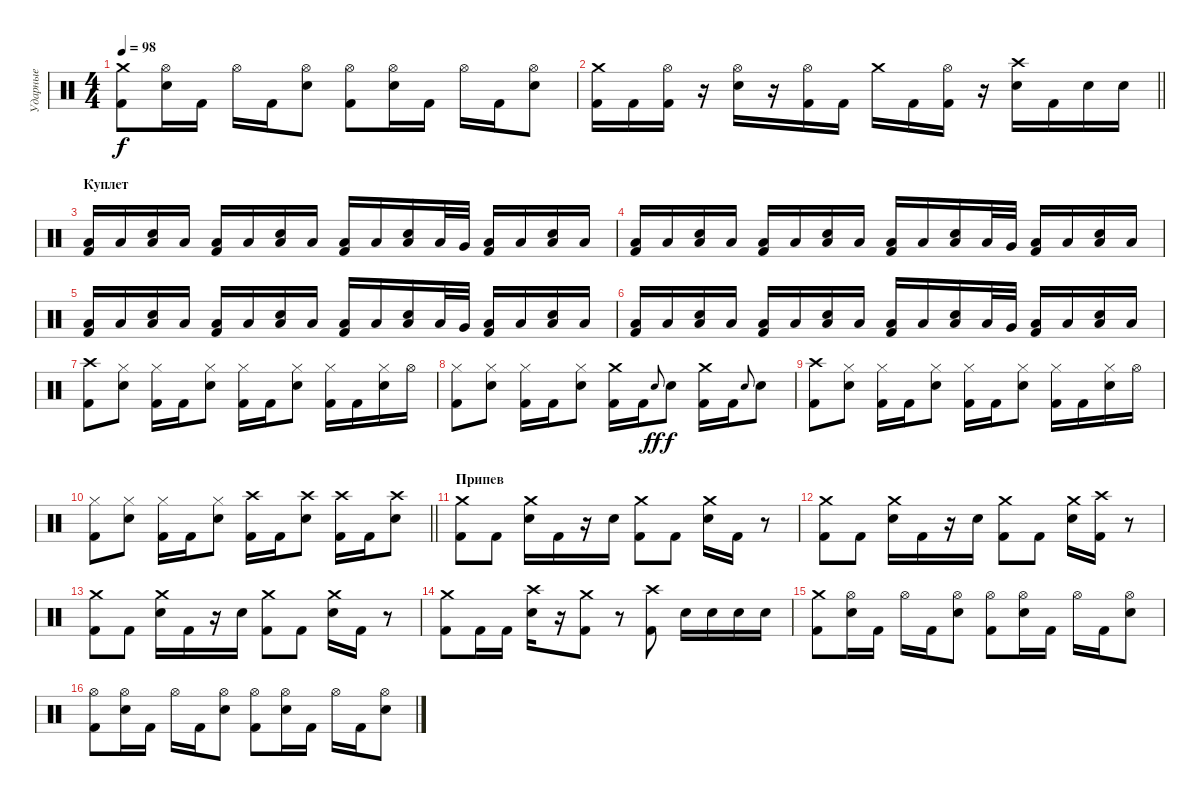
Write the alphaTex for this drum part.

\track ("Ударные" "Ударные") {instrument percussion}
\staff {score}
\articulation defaults
\ts (4 4)
\tempo 98
\clef neutral
\ks c
("Crash medium (hit)" "Kick (hit) 2").8{dy f} ("Hi-Hat (open)" "Electric Snare (hit)").16 "Kick (hit) 2".16 "Hi-Hat (open)".16 "Kick (hit) 2".16 ("Hi-Hat (open)" "Electric Snare (hit)").8 ("Hi-Hat (open)" "Kick (hit) 2").8 ("Hi-Hat (open)" "Electric Snare (hit)").16 "Kick (hit) 2".16 "Hi-Hat (open)".16 "Kick (hit) 2".16 ("Hi-Hat (open)" "Electric Snare (hit)").8 |
\barLineRight lightlight
("Crash medium (hit)" "Kick (hit) 2").16 "Kick (hit) 2".16 ("Hi-Hat (open)" "Kick (hit) 2").16 r.16 ("Hi-Hat (open)" "Electric Snare (hit)").16 r.16 ("Hi-Hat (open)" "Kick (hit) 2").16 "Kick (hit) 2".16 "Crash medium (hit)".16 "Kick (hit) 2".16 ("Hi-Hat (open)" "Kick (hit) 2").16 r.16 ("Crash high (hit)" "Electric Snare (hit)").16 "Kick (hit) 2".16 "Electric Snare (hit)".16 "Electric Snare (hit)".16 |
\section ("" "Куплет")
("Low Floor Tom (hit)" "Kick (hit) 2").16 "Low Floor Tom (hit)".16 ("Low Floor Tom (hit)" "Electric Snare (hit)").16 "Low Floor Tom (hit)".16 ("Low Floor Tom (hit)" "Kick (hit) 2").16 "Low Floor Tom (hit)".16 ("Low Floor Tom (hit)" "Electric Snare (hit)").16 "Low Floor Tom (hit)".16 ("Low Floor Tom (hit)" "Kick (hit) 2").16 "Low Floor Tom (hit)".16 ("Low Floor Tom (hit)" "Electric Snare (hit)").16 "Low Floor Tom (hit)".32 "Very Low Tom (hit)".32 ("Low Floor Tom (hit)" "Kick (hit) 2").16 "Low Floor Tom (hit)".16 ("Low Floor Tom (hit)" "Electric Snare (hit)").16 "Low Floor Tom (hit)".16 |
("Low Floor Tom (hit)" "Kick (hit) 2").16 "Low Floor Tom (hit)".16 ("Low Floor Tom (hit)" "Electric Snare (hit)").16 "Low Floor Tom (hit)".16 ("Low Floor Tom (hit)" "Kick (hit) 2").16 "Low Floor Tom (hit)".16 ("Low Floor Tom (hit)" "Electric Snare (hit)").16 "Low Floor Tom (hit)".16 ("Low Floor Tom (hit)" "Kick (hit) 2").16 "Low Floor Tom (hit)".16 ("Low Floor Tom (hit)" "Electric Snare (hit)").16 "Low Floor Tom (hit)".32 "Very Low Tom (hit)".32 ("Low Floor Tom (hit)" "Kick (hit) 2").16 "Low Floor Tom (hit)".16 ("Low Floor Tom (hit)" "Electric Snare (hit)").16 "Low Floor Tom (hit)".16 |
("Low Floor Tom (hit)" "Kick (hit) 2").16 "Low Floor Tom (hit)".16 ("Low Floor Tom (hit)" "Electric Snare (hit)").16 "Low Floor Tom (hit)".16 ("Low Floor Tom (hit)" "Kick (hit) 2").16 "Low Floor Tom (hit)".16 ("Low Floor Tom (hit)" "Electric Snare (hit)").16 "Low Floor Tom (hit)".16 ("Low Floor Tom (hit)" "Kick (hit) 2").16 "Low Floor Tom (hit)".16 ("Low Floor Tom (hit)" "Electric Snare (hit)").16 "Low Floor Tom (hit)".32 "Very Low Tom (hit)".32 ("Low Floor Tom (hit)" "Kick (hit) 2").16 "Low Floor Tom (hit)".16 ("Low Floor Tom (hit)" "Electric Snare (hit)").16 "Low Floor Tom (hit)".16 |
("Low Floor Tom (hit)" "Kick (hit) 2").16 "Low Floor Tom (hit)".16 ("Low Floor Tom (hit)" "Electric Snare (hit)").16 "Low Floor Tom (hit)".16 ("Low Floor Tom (hit)" "Kick (hit) 2").16 "Low Floor Tom (hit)".16 ("Low Floor Tom (hit)" "Electric Snare (hit)").16 "Low Floor Tom (hit)".16 ("Low Floor Tom (hit)" "Kick (hit) 2").16 "Low Floor Tom (hit)".16 ("Low Floor Tom (hit)" "Electric Snare (hit)").16 "Low Floor Tom (hit)".32 "Very Low Tom (hit)".32 ("Low Floor Tom (hit)" "Kick (hit) 2").16 "Low Floor Tom (hit)".16 ("Low Floor Tom (hit)" "Electric Snare (hit)").16 "Low Floor Tom (hit)".16 |
("Crash high (hit)" "Kick (hit) 2").8 ("Hi-Hat (closed)" "Electric Snare (hit)").8 ("Hi-Hat (closed)" "Kick (hit) 2").16 "Kick (hit) 2".16 ("Hi-Hat (closed)" "Electric Snare (hit)").8 ("Hi-Hat (closed)" "Kick (hit) 2").16 "Kick (hit) 2".16 ("Hi-Hat (closed)" "Electric Snare (hit)").8 ("Hi-Hat (closed)" "Kick (hit) 2").16 "Kick (hit) 2".16 ("Hi-Hat (closed)" "Electric Snare (hit)").16 "Hi-Hat (open)".16 |
("Hi-Hat (closed)" "Kick (hit) 2").8 ("Hi-Hat (closed)" "Electric Snare (hit)").8 ("Hi-Hat (closed)" "Kick (hit) 2").16 "Kick (hit) 2".16 ("Hi-Hat (closed)" "Electric Snare (hit)").8 ("Crash medium (hit)" "Kick (hit) 2").16 "Kick (hit) 2".16 "Electric Snare (hit)".8{gr onbeat dy ff} "Electric Snare (hit)".8{dy f} ("Crash medium (hit)" "Kick (hit) 2").16 "Kick (hit) 2".16 "Electric Snare (hit)".8{gr onbeat} "Electric Snare (hit)".8 |
("Crash high (hit)" "Kick (hit) 2").8 ("Hi-Hat (closed)" "Electric Snare (hit)").8 ("Hi-Hat (closed)" "Kick (hit) 2").16 "Kick (hit) 2".16 ("Hi-Hat (closed)" "Electric Snare (hit)").8 ("Hi-Hat (closed)" "Kick (hit) 2").16 "Kick (hit) 2".16 ("Hi-Hat (closed)" "Electric Snare (hit)").8 ("Hi-Hat (closed)" "Kick (hit) 2").16 "Kick (hit) 2".16 ("Hi-Hat (closed)" "Electric Snare (hit)").16 "Hi-Hat (open)".16 |
\barLineRight lightlight
("Hi-Hat (closed)" "Kick (hit) 2").8 ("Hi-Hat (closed)" "Electric Snare (hit)").8 ("Hi-Hat (closed)" "Kick (hit) 2").16 "Kick (hit) 2".16 ("Hi-Hat (closed)" "Electric Snare (hit)").8 ("Crash high (hit)" "Kick (hit) 2").16 "Kick (hit) 2".16 ("Crash high (hit)" "Electric Snare (hit)").8 ("Crash high (hit)" "Kick (hit) 2").16 "Kick (hit) 2".16 ("Crash high (hit)" "Electric Snare (hit)").8 |
\section ("" "Припев")
("Crash medium (hit)" "Kick (hit) 2").8 "Kick (hit) 2".8 ("Crash medium (hit)" "Electric Snare (hit)").16 "Kick (hit) 2".16 r.16 "Electric Snare (hit)".16 ("Crash medium (hit)" "Kick (hit) 2").8 "Kick (hit) 2".8 ("Crash medium (hit)" "Electric Snare (hit)").16 "Kick (hit) 2".16 r.8 |
("Crash medium (hit)" "Kick (hit) 2").8 "Kick (hit) 2".8 ("Crash medium (hit)" "Electric Snare (hit)").16 "Kick (hit) 2".16 r.16 "Electric Snare (hit)".16 ("Crash medium (hit)" "Kick (hit) 2").8 "Kick (hit) 2".8 ("Crash medium (hit)" "Electric Snare (hit)").16 ("Crash high (hit)" "Kick (hit) 2").16 r.8 |
("Crash medium (hit)" "Kick (hit) 2").8 "Kick (hit) 2".8 ("Crash medium (hit)" "Electric Snare (hit)").16 "Kick (hit) 2".16 r.16 "Electric Snare (hit)".16 ("Crash medium (hit)" "Kick (hit) 2").8 "Kick (hit) 2".8 ("Crash medium (hit)" "Electric Snare (hit)").16 "Kick (hit) 2".16 r.8 |
("Crash medium (hit)" "Kick (hit) 2").8 "Kick (hit) 2".16 "Kick (hit) 2".16 ("Crash high (hit)" "Electric Snare (hit)").16 r.16 ("Crash medium (hit)" "Kick (hit) 2").8 r.8 ("Crash high (hit)" "Kick (hit) 2").8 "Electric Snare (hit)".16 "Electric Snare (hit)".16 "Electric Snare (hit)".16 "Electric Snare (hit)".16 |
("Crash medium (hit)" "Kick (hit) 2").8 ("Hi-Hat (open)" "Electric Snare (hit)").16 "Kick (hit) 2".16 "Hi-Hat (open)".16 "Kick (hit) 2".16 ("Hi-Hat (open)" "Electric Snare (hit)").8 ("Hi-Hat (open)" "Kick (hit) 2").8 ("Hi-Hat (open)" "Electric Snare (hit)").16 "Kick (hit) 2".16 "Hi-Hat (open)".16 "Kick (hit) 2".16 ("Hi-Hat (open)" "Electric Snare (hit)").8 |
("Hi-Hat (open)" "Kick (hit) 2").8 ("Hi-Hat (open)" "Electric Snare (hit)").16 "Kick (hit) 2".16 "Hi-Hat (open)".16 "Kick (hit) 2".16 ("Hi-Hat (open)" "Electric Snare (hit)").8 ("Hi-Hat (open)" "Kick (hit) 2").8 ("Hi-Hat (open)" "Electric Snare (hit)").16 "Kick (hit) 2".16 "Hi-Hat (open)".16 "Kick (hit) 2".16 ("Hi-Hat (open)" "Electric Snare (hit)").8
